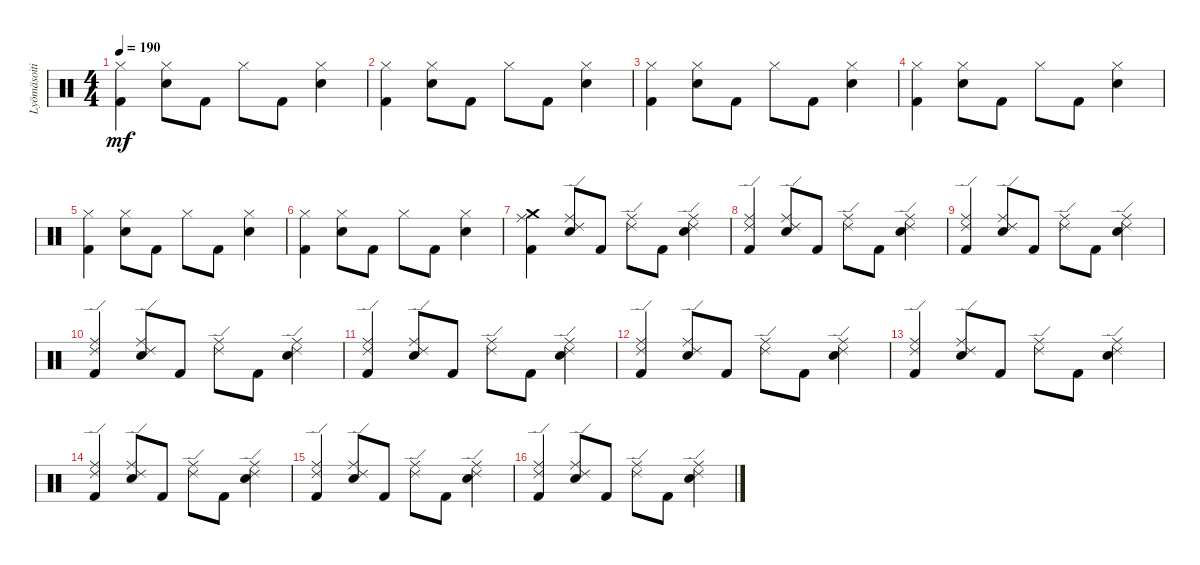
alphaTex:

\track ("Lyömäsoitin" "Lyömäsoiti") {instrument percussion}
\staff {score}
\articulation defaults
\ts (4 4)
\tempo 190
\clef neutral
\ks c
("Hi-Hat (closed)" "Kick (hit) 2").4{dy mf} ("Hi-Hat (closed)" "Snare (hit) 2").8 "Kick (hit) 2".8 "Hi-Hat (closed)".8 "Kick (hit) 2".8 ("Hi-Hat (closed)" "Snare (hit) 2").4 |
("Hi-Hat (closed)" "Kick (hit) 2").4 ("Hi-Hat (closed)" "Snare (hit) 2").8 "Kick (hit) 2".8 "Hi-Hat (closed)".8 "Kick (hit) 2".8 ("Hi-Hat (closed)" "Snare (hit) 2").4 |
("Hi-Hat (closed)" "Kick (hit) 2").4 ("Hi-Hat (closed)" "Snare (hit) 2").8 "Kick (hit) 2".8 "Hi-Hat (closed)".8 "Kick (hit) 2".8 ("Hi-Hat (closed)" "Snare (hit) 2").4 |
("Hi-Hat (closed)" "Kick (hit) 2").4 ("Hi-Hat (closed)" "Snare (hit) 2").8 "Kick (hit) 2".8 "Hi-Hat (closed)".8 "Kick (hit) 2".8 ("Hi-Hat (closed)" "Snare (hit) 2").4 |
("Hi-Hat (closed)" "Kick (hit) 2").4 ("Hi-Hat (closed)" "Snare (hit) 2").8 "Kick (hit) 2".8 "Hi-Hat (closed)".8 "Kick (hit) 2".8 ("Hi-Hat (closed)" "Snare (hit) 2").4 |
("Hi-Hat (closed)" "Kick (hit) 2").4 ("Hi-Hat (closed)" "Snare (hit) 2").8 "Kick (hit) 2".8 "Hi-Hat (closed)".8 "Kick (hit) 2".8 ("Hi-Hat (closed)" "Snare (hit) 2").4 |
("Crash medium (hit)" "Ride (middle)" "Kick (hit) 2").4 ("Ride (edge) 2" "Ride (middle)" "Snare (hit) 2").8 "Kick (hit) 2".8 ("Ride (edge) 2" "Ride (middle)").8 "Kick (hit) 2".8 ("Ride (edge) 2" "Ride (middle)" "Snare (hit) 2").4 |
("Ride (edge) 2" "Ride (middle)" "Kick (hit) 2").4 ("Ride (edge) 2" "Ride (middle)" "Snare (hit) 2").8 "Kick (hit) 2".8 ("Ride (edge) 2" "Ride (middle)").8 "Kick (hit) 2".8 ("Ride (edge) 2" "Ride (middle)" "Snare (hit) 2").4 |
("Ride (edge) 2" "Ride (middle)" "Kick (hit) 2").4 ("Ride (edge) 2" "Ride (middle)" "Snare (hit) 2").8 "Kick (hit) 2".8 ("Ride (edge) 2" "Ride (middle)").8 "Kick (hit) 2".8 ("Ride (edge) 2" "Ride (middle)" "Snare (hit) 2").4 |
("Ride (edge) 2" "Ride (middle)" "Kick (hit) 2").4 ("Ride (edge) 2" "Ride (middle)" "Snare (hit) 2").8 "Kick (hit) 2".8 ("Ride (edge) 2" "Ride (middle)").8 "Kick (hit) 2".8 ("Ride (edge) 2" "Ride (middle)" "Snare (hit) 2").4 |
("Ride (edge) 2" "Ride (middle)" "Kick (hit) 2").4 ("Ride (edge) 2" "Ride (middle)" "Snare (hit) 2").8 "Kick (hit) 2".8 ("Ride (edge) 2" "Ride (middle)").8 "Kick (hit) 2".8 ("Ride (edge) 2" "Ride (middle)" "Snare (hit) 2").4 |
("Ride (edge) 2" "Ride (middle)" "Kick (hit) 2").4 ("Ride (edge) 2" "Ride (middle)" "Snare (hit) 2").8 "Kick (hit) 2".8 ("Ride (edge) 2" "Ride (middle)").8 "Kick (hit) 2".8 ("Ride (edge) 2" "Ride (middle)" "Snare (hit) 2").4 |
("Ride (edge) 2" "Ride (middle)" "Kick (hit) 2").4 ("Ride (edge) 2" "Ride (middle)" "Snare (hit) 2").8 "Kick (hit) 2".8 ("Ride (edge) 2" "Ride (middle)").8 "Kick (hit) 2".8 ("Ride (edge) 2" "Ride (middle)" "Snare (hit) 2").4 |
("Ride (edge) 2" "Ride (middle)" "Kick (hit) 2").4 ("Ride (edge) 2" "Ride (middle)" "Snare (hit) 2").8 "Kick (hit) 2".8 ("Ride (edge) 2" "Ride (middle)").8 "Kick (hit) 2".8 ("Ride (edge) 2" "Ride (middle)" "Snare (hit) 2").4 |
("Ride (edge) 2" "Ride (middle)" "Kick (hit) 2").4 ("Ride (edge) 2" "Ride (middle)" "Snare (hit) 2").8 "Kick (hit) 2".8 ("Ride (edge) 2" "Ride (middle)").8 "Kick (hit) 2".8 ("Ride (edge) 2" "Ride (middle)" "Snare (hit) 2").4 |
("Ride (edge) 2" "Ride (middle)" "Kick (hit) 2").4 ("Ride (edge) 2" "Ride (middle)" "Snare (hit) 2").8 "Kick (hit) 2".8 ("Ride (edge) 2" "Ride (middle)").8 "Kick (hit) 2".8 ("Ride (edge) 2" "Ride (middle)" "Snare (hit) 2").4
